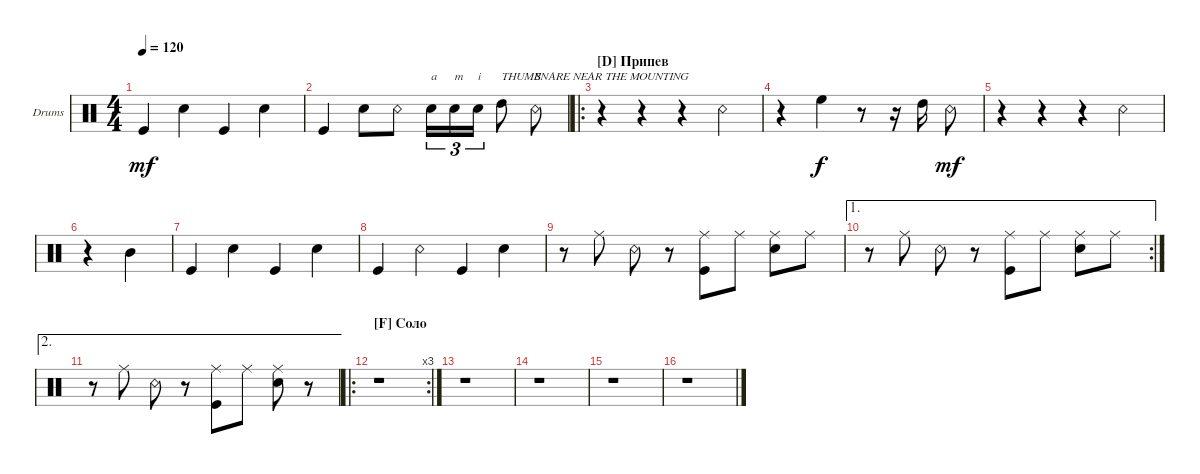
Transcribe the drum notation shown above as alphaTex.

\defaultSystemsLayout 4
\bracketExtendMode groupsimilarinstruments
\firstSystemTrackNameOrientation horizontal
\otherSystemsTrackNameOrientation horizontal
\track ("Drumkit" "Drums") {instrument percussion}
\staff {score}
\articulation defaults
\ts (4 4)
\tempo 120
\clef neutral
\ks c "Kick (hit)".4{dy mf} "Snare (hit) 2".4 "Kick (hit)".4 "Snare (hit) 2".4
|
"Kick (hit)".4 "Snare (hit) 2".8 "Snare (rim shot)".8 "Snare (hit) 2".16{tu (3 2) txt "a"} "Snare (hit) 2".16{tu (3 2) txt "m"} "Snare (hit) 2".16{tu (3 2) txt "i"} "High Tom (hit)".8{txt "THUMB"} "Snare (rim shot)".8{txt "SNARE NEAR THE MOUNTING"} |
\ro
\section ("D" "Припев")
r.4 r.4 r.4 "Snare (rim shot)".4 |
r.4 "High Floor Tom (hit)".4{dy f} r.8 r.16 "High Tom (hit)".16 "Snare (rim shot)".8{dy mf} |
r.4 r.4 r.4 "Snare (rim shot)".4 |
r.4 "Mid Tom (hit)".4 |
"Kick (hit)".4 "Snare (hit) 2".4 "Kick (hit)".4 "Snare (hit) 2".4 |
"Kick (hit)".4 "Snare (rim shot)".4 "Kick (hit)".4 "Snare (hit) 2".4 |
r.8 "Ride (middle)".8 "Snare (rim shot)".8 r.8 ("Kick (hit)" "Ride (middle)").8 "Ride (middle)".8 ("Snare (hit) 2" "Ride (middle)").8 "Ride (middle)".8 |
\ae 1
\rc 2
r.8 "Ride (middle)".8 "Snare (rim shot)".8 r.8 ("Kick (hit)" "Ride (middle)").8 "Ride (middle)".8 ("Snare (hit) 2" "Ride (middle)").8 "Ride (middle)".8 |
\ae 2
r.8 "Ride (middle)".8 "Snare (rim shot)".8 r.8 ("Kick (hit)" "Ride (middle)").8 "Ride (middle)".8 ("Snare (hit) 2" "Ride (middle)").8 r.8 |
\ro
\rc 3
\section ("F" "Соло")
r.1 |
r.1 |
r.1 |
r.1 |
r.1
